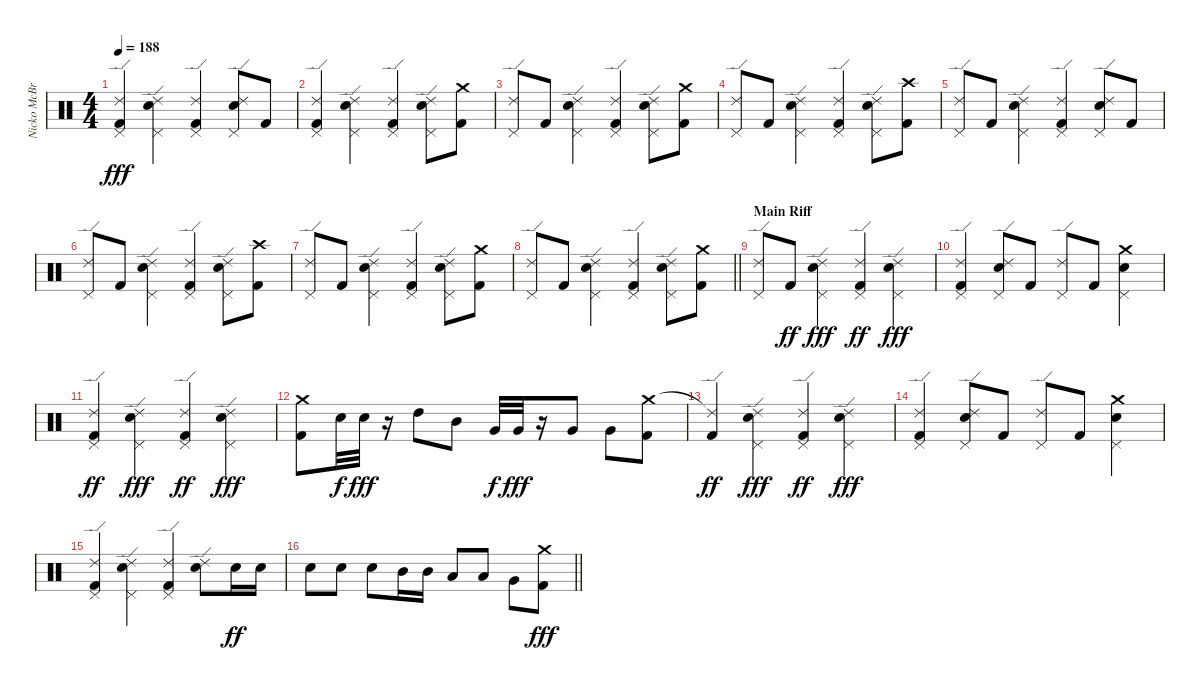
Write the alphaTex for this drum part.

\track ("Nicko McBrain" "Nicko McBr") {instrument percussion}
\staff {score}
\articulation defaults
\ts (4 4)
\tempo 188
\clef neutral
\ks c
("Ride (edge) 2" "Pedal Hi-Hat (hit)" "Kick (hit) 2").4{dy fff} ("Ride (edge) 2" "Electric Snare (hit)" "Pedal Hi-Hat (hit)").4 ("Ride (edge) 2" "Pedal Hi-Hat (hit)" "Kick (hit) 2").4 ("Ride (edge) 2" "Electric Snare (hit)" "Pedal Hi-Hat (hit)").8 "Kick (hit) 2".8 |
("Ride (edge) 2" "Pedal Hi-Hat (hit)" "Kick (hit) 2").4 ("Ride (edge) 2" "Electric Snare (hit)" "Pedal Hi-Hat (hit)").4 ("Ride (edge) 2" "Pedal Hi-Hat (hit)" "Kick (hit) 2").4 ("Ride (edge) 2" "Electric Snare (hit)" "Pedal Hi-Hat (hit)").8 ("Crash medium (hit)" "Kick (hit) 2").8 |
("Ride (edge) 2" "Pedal Hi-Hat (hit)").8 "Kick (hit) 2".8 ("Ride (edge) 2" "Electric Snare (hit)" "Pedal Hi-Hat (hit)").4 ("Ride (edge) 2" "Pedal Hi-Hat (hit)" "Kick (hit) 2").4 ("Ride (edge) 2" "Electric Snare (hit)" "Pedal Hi-Hat (hit)").8 ("Crash medium (hit)" "Kick (hit) 2").8 |
("Ride (edge) 2" "Pedal Hi-Hat (hit)").8 "Kick (hit) 2".8 ("Ride (edge) 2" "Electric Snare (hit)" "Pedal Hi-Hat (hit)").4 ("Ride (edge) 2" "Pedal Hi-Hat (hit)" "Kick (hit) 2").4 ("Ride (edge) 2" "Electric Snare (hit)" "Pedal Hi-Hat (hit)").8 ("Crash high (hit)" "Kick (hit) 2").8 |
("Ride (edge) 2" "Pedal Hi-Hat (hit)").8 "Kick (hit) 2".8 ("Ride (edge) 2" "Electric Snare (hit)" "Pedal Hi-Hat (hit)").4 ("Ride (edge) 2" "Pedal Hi-Hat (hit)" "Kick (hit) 2").4 ("Ride (edge) 2" "Electric Snare (hit)" "Pedal Hi-Hat (hit)").8 "Kick (hit) 2".8 |
("Ride (edge) 2" "Pedal Hi-Hat (hit)").8 "Kick (hit) 2".8 ("Ride (edge) 2" "Electric Snare (hit)" "Pedal Hi-Hat (hit)").4 ("Ride (edge) 2" "Pedal Hi-Hat (hit)" "Kick (hit) 2").4 ("Ride (edge) 2" "Electric Snare (hit)" "Pedal Hi-Hat (hit)").8 ("Crash high (hit)" "Kick (hit) 2").8 |
("Ride (edge) 2" "Pedal Hi-Hat (hit)").8 "Kick (hit) 2".8 ("Ride (edge) 2" "Electric Snare (hit)" "Pedal Hi-Hat (hit)").4 ("Ride (edge) 2" "Pedal Hi-Hat (hit)" "Kick (hit) 2").4 ("Ride (edge) 2" "Electric Snare (hit)" "Pedal Hi-Hat (hit)").8 ("Crash medium (hit)" "Kick (hit) 2").8 |
\barLineRight lightlight
("Ride (edge) 2" "Pedal Hi-Hat (hit)").8 "Kick (hit) 2".8 ("Ride (edge) 2" "Electric Snare (hit)" "Pedal Hi-Hat (hit)").4 ("Ride (edge) 2" "Pedal Hi-Hat (hit)" "Kick (hit) 2").4 ("Ride (edge) 2" "Electric Snare (hit)" "Pedal Hi-Hat (hit)").8 ("Crash medium (hit)" "Kick (hit) 2").8 |
\section ("" "Main Riff")
("Ride (edge) 2" "Pedal Hi-Hat (hit)").8 "Kick (hit) 2".8{dy ff} ("Ride (edge) 2" "Electric Snare (hit)" "Pedal Hi-Hat (hit)").4{dy fff} ("Ride (edge) 2" "Pedal Hi-Hat (hit)" "Kick (hit) 2").4{dy ff} ("Ride (edge) 2" "Electric Snare (hit)" "Pedal Hi-Hat (hit)").4{dy fff} |
("Ride (edge) 2" "Pedal Hi-Hat (hit)" "Kick (hit) 2").4 ("Ride (edge) 2" "Electric Snare (hit)" "Pedal Hi-Hat (hit)").8 "Kick (hit) 2".8 ("Ride (edge) 2" "Pedal Hi-Hat (hit)").8 "Kick (hit) 2".8 ("Crash medium (hit)" "Electric Snare (hit)" "Pedal Hi-Hat (hit)").4 |
("Ride (edge) 2" "Pedal Hi-Hat (hit)" "Kick (hit) 2").4{dy ff} ("Ride (edge) 2" "Electric Snare (hit)" "Pedal Hi-Hat (hit)").4{dy fff} ("Ride (edge) 2" "Pedal Hi-Hat (hit)" "Kick (hit) 2").4{dy ff} ("Ride (edge) 2" "Electric Snare (hit)" "Pedal Hi-Hat (hit)").4{dy fff} |
("Crash medium (hit)" "Kick (hit) 2").8 "Electric Snare (hit)".32{dy f} "Electric Snare (hit)".32{dy fff} r.16 "High Tom (hit)".8 "Mid Tom (hit)".8 "Very Low Tom (hit)".32{dy f} "Very Low Tom (hit)".32{dy fff} r.16 "Very Low Tom (hit)".8 "Very Low Tom (hit)".8 ("Crash medium (hit)" "Kick (hit) 2").8 |
("Ride (edge) 2"{t} "Kick (hit) 2").4{dy ff} ("Ride (edge) 2" "Electric Snare (hit)" "Pedal Hi-Hat (hit)").4{dy fff} ("Ride (edge) 2" "Pedal Hi-Hat (hit)" "Kick (hit) 2").4{dy ff} ("Ride (edge) 2" "Electric Snare (hit)" "Pedal Hi-Hat (hit)").4{dy fff} |
("Ride (edge) 2" "Pedal Hi-Hat (hit)" "Kick (hit) 2").4 ("Ride (edge) 2" "Electric Snare (hit)" "Pedal Hi-Hat (hit)").8 "Kick (hit) 2".8 ("Ride (edge) 2" "Pedal Hi-Hat (hit)").8 "Kick (hit) 2".8 ("Crash medium (hit)" "Electric Snare (hit)" "Pedal Hi-Hat (hit)").4 |
("Ride (edge) 2" "Pedal Hi-Hat (hit)" "Kick (hit) 2").4 ("Ride (edge) 2" "Electric Snare (hit)" "Pedal Hi-Hat (hit)").4 ("Ride (edge) 2" "Pedal Hi-Hat (hit)" "Kick (hit) 2").4 ("Ride (edge) 2" "Electric Snare (hit)").8 "Electric Snare (hit)".16{dy ff} "Electric Snare (hit)".16 |
\barLineRight lightlight "Electric Snare (hit)".8 "Electric Snare (hit)".8 "Electric Snare (hit)".8 "Mid Tom (hit)".16 "Mid Tom (hit)".16 "Low Tom (hit)".8 "Low Tom (hit)".8 "Very Low Tom (hit)".8
("Crash medium (hit)" "Kick (hit) 2").8{dy fff}
